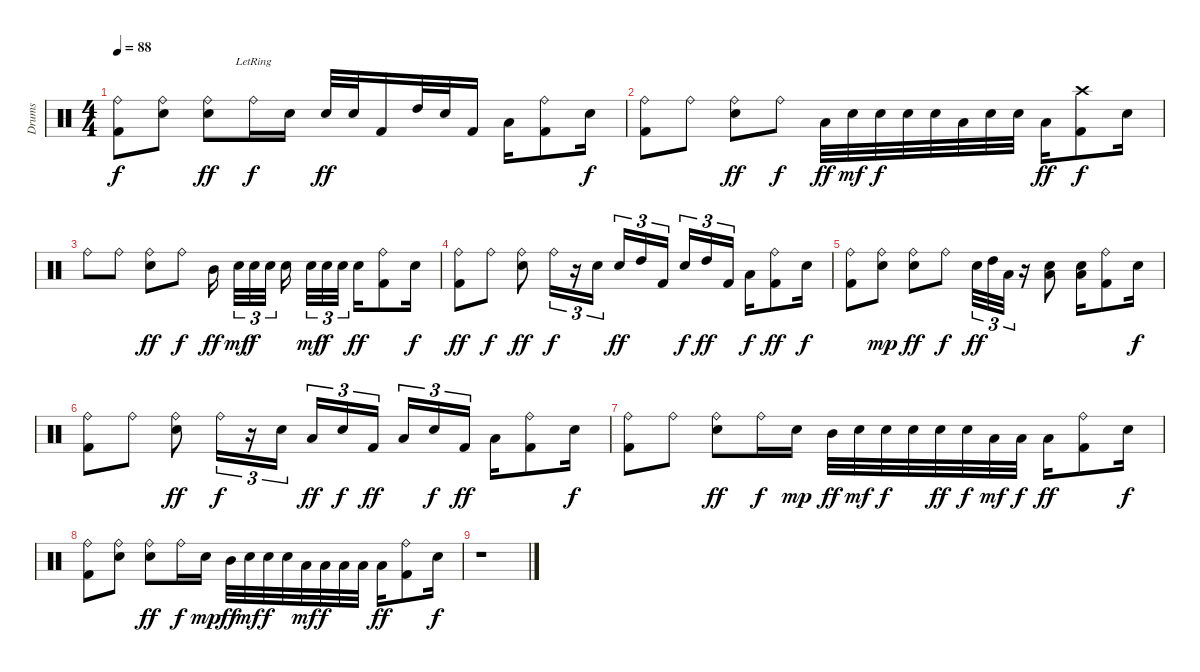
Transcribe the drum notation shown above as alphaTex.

\track ("Drums" "Drums") {instrument percussion}
\staff {score}
\articulation defaults
\ts (4 4)
\tempo 88
\clef neutral
\ks c
("Ride (bell)" "Kick (hit) 2").8{dy f} ("Ride (bell)" "Electric Snare (hit)").8 ("Ride (bell)" "Electric Snare (hit)").8{dy ff} "Ride (bell)"{lr}.16{dy f} "Electric Snare (hit)".16 "Electric Snare (hit)".32{dy ff} "Electric Snare (hit)".32 "Kick (hit) 2".16 "High Tom (hit)".32 "Electric Snare (hit)".32 "Kick (hit) 2".16 "Low Tom (hit)".16 ("Ride (bell)" "Kick (hit) 2").8 "Electric Snare (hit)".16{dy f} |
("Ride (bell)" "Kick (hit) 2").8 "Ride (bell)".8 ("Ride (bell)" "Electric Snare (hit)").8{dy ff} "Ride (bell)".8{dy f} "Low Tom (hit)".32{dy ff} "Electric Snare (hit)".32{dy mf} "Electric Snare (hit)".32{dy f} "Electric Snare (hit)".32 "Electric Snare (hit)".32 "Low Tom (hit)".32 "Electric Snare (hit)".32 "Electric Snare (hit)".32 "Low Tom (hit)".16{dy ff} ("Crash high (hit)" "Kick (hit) 2").8{dy f} "Electric Snare (hit)".16 |
"Ride (bell)".8 "Ride (bell)".8 ("Ride (bell)" "Electric Snare (hit)").8{dy ff} "Ride (bell)".8{dy f} "Mid Tom (hit)".16{dy ff} "Electric Snare (hit)".32{tu (3 2) dy mf} "Electric Snare (hit)".32{tu (3 2) dy f} "Electric Snare (hit)".32{tu (3 2)} "Electric Snare (hit)".16 "Electric Snare (hit)".32{tu (3 2) dy mf} "Electric Snare (hit)".32{tu (3 2) dy f} "Electric Snare (hit)".32{tu (3 2)} "Electric Snare (hit)".16{dy ff} ("Ride (bell)" "Kick (hit) 2").8 "Electric Snare (hit)".16{dy f} |
("Ride (bell)" "Kick (hit) 2").8{dy ff} "Ride (bell)".8{dy f} ("Ride (bell)" "Electric Snare (hit)").8{dy ff} "Ride (bell)".16{tu (3 2) dy f} r.16{tu (3 2)} "Electric Snare (hit)".16{tu (3 2)} "Electric Snare (hit)".16{tu (3 2) dy ff} "High Tom (hit)".16{tu (3 2)} "Kick (hit) 2".16{tu (3 2)} "Electric Snare (hit)".16{tu (3 2) dy f} "High Tom (hit)".16{tu (3 2) dy ff} "Kick (hit) 2".16{tu (3 2)} "Low Tom (hit)".16{dy f} ("Ride (bell)" "Kick (hit) 2").8{dy ff} "Electric Snare (hit)".16{dy f} |
("Ride (bell)" "Kick (hit) 2").8 ("Ride (bell)" "Electric Snare (hit)").8{dy mp} ("Ride (bell)" "Electric Snare (hit)").8{dy ff} "Ride (bell)".8{dy f} "Electric Snare (hit)".32{tu (3 2) dy ff} "High Tom (hit)".32{tu (3 2)} "Low Tom (hit)".32{tu (3 2)} r.16 ("Electric Snare (hit)" "Low Tom (hit)").8 ("Electric Snare (hit)" "Low Tom (hit)").16 ("Ride (bell)" "Kick (hit) 2").8 "Electric Snare (hit)".16{dy f} |
("Ride (bell)" "Kick (hit) 2").8 "Ride (bell)".8 ("Ride (bell)" "Electric Snare (hit)").8{dy ff} "Ride (bell)".16{tu (3 2) dy f} r.16{tu (3 2)} "Electric Snare (hit)".16{tu (3 2)} "Low Tom (hit)".16{tu (3 2) dy ff} "Electric Snare (hit)".16{tu (3 2) dy f} "Kick (hit) 2".16{tu (3 2) dy ff} "Low Tom (hit)".16{tu (3 2)} "Electric Snare (hit)".16{tu (3 2) dy f} "Kick (hit) 2".16{tu (3 2) dy ff} "Low Tom (hit)".16 ("Ride (bell)" "Kick (hit) 2").8 "Electric Snare (hit)".16{dy f} |
("Ride (bell)" "Kick (hit) 2").8 "Ride (bell)".8 ("Ride (bell)" "Electric Snare (hit)").8{dy ff} "Ride (bell)".16{dy f} "Electric Snare (hit)".16{dy mp} "Mid Tom (hit)".32{dy ff} "Electric Snare (hit)".32{dy mf} "Electric Snare (hit)".32{dy f} "Electric Snare (hit)".32 "Electric Snare (hit)".32{dy ff} "Electric Snare (hit)".32{dy f} "Low Tom (hit)".32{dy mf} "Low Tom (hit)".32{dy f} "Low Tom (hit)".16{dy ff} ("Ride (bell)" "Kick (hit) 2").8 "Electric Snare (hit)".16{dy f} |
("Ride (bell)" "Kick (hit) 2").8{volume 0} ("Ride (bell)" "Electric Snare (hit)").8 ("Ride (bell)" "Electric Snare (hit)").8{dy ff} "Ride (bell)".16{dy f} "Electric Snare (hit)".16{dy mp} "Mid Tom (hit)".32{dy ff} "Electric Snare (hit)".32{dy mf} "Electric Snare (hit)".32{dy f} "Electric Snare (hit)".32 "Low Tom (hit)".32{dy mf} "Low Tom (hit)".32{dy f} "Low Tom (hit)".32 "Low Tom (hit)".32 "Low Tom (hit)".16{dy ff} ("Ride (bell)" "Kick (hit) 2").8 "Electric Snare (hit)".16{dy f} |
r.1
